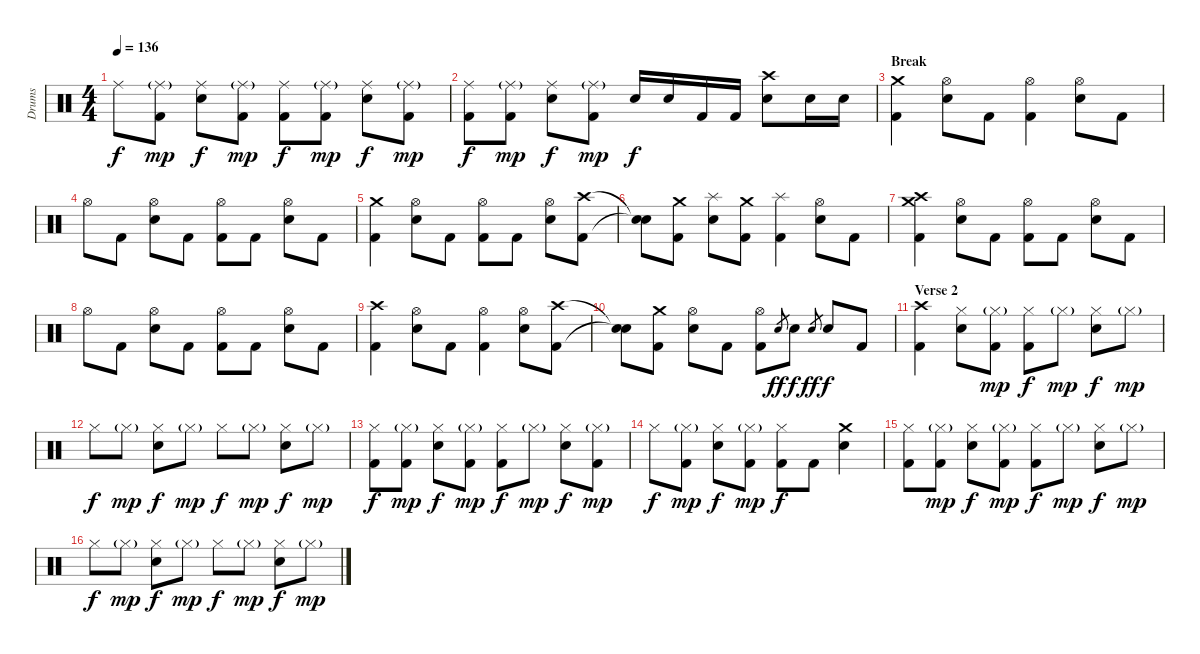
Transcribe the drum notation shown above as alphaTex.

\track ("Drums" "Drums") {instrument percussion}
\staff {score}
\articulation defaults
\ts (4 4)
\tempo 136
\clef neutral
\ks c "Ride (middle)".8{dy f}
("Ride (middle)"{g} "Kick (hit) 2").8{dy mp} ("Ride (middle)" "Snare (hit) 2").8{dy f} ("Ride (middle)"{g} "Kick (hit) 2").8{dy mp} ("Ride (middle)" "Kick (hit) 2").8{dy f} ("Ride (middle)"{g} "Kick (hit) 2").8{dy mp} ("Ride (middle)" "Snare (hit) 2").8{dy f} ("Ride (middle)"{g} "Kick (hit) 2").8{dy mp} |
("Ride (middle)" "Kick (hit) 2").8{dy f} ("Ride (middle)"{g} "Kick (hit) 2").8{dy mp} ("Ride (middle)" "Snare (hit) 2").8{dy f} ("Ride (middle)"{g} "Kick (hit) 2").8{dy mp} "Snare (hit) 2".16{dy f} "Snare (hit) 2".16 "Kick (hit) 2".16 "Kick (hit) 2".16 ("Crash high (hit)" "Snare (hit) 2").8 "Snare (hit) 2".16 "Snare (hit) 2".16 |
\section ("" "Break")
("Crash medium (hit)" "Kick (hit) 2").4 ("Hi-Hat (open)" "Snare (hit) 2").8 "Kick (hit) 2".8 ("Hi-Hat (open)" "Kick (hit) 2").4 ("Hi-Hat (open)" "Snare (hit) 2").8 "Kick (hit) 2".8 |
"Hi-Hat (open)".8 "Kick (hit) 2".8 ("Hi-Hat (open)" "Snare (hit) 2").8 "Kick (hit) 2".8 ("Hi-Hat (open)" "Kick (hit) 2").8 "Kick (hit) 2".8 ("Hi-Hat (open)" "Snare (hit) 2").8 "Kick (hit) 2".8 |
("Crash medium (hit)" "Kick (hit) 2").4 ("Hi-Hat (open)" "Snare (hit) 2").8 "Kick (hit) 2".8 ("Hi-Hat (open)" "Kick (hit) 2").8 "Kick (hit) 2".8 ("Hi-Hat (open)" "Snare (hit) 2").8 ("Crash high (hit)" "Kick (hit) 2").8 |
("Snare (hit)"{t} "Snare (hit)"{t}).8 ("Crash medium (hit)" "Kick (hit) 2").8 ("Splash (hit)" "Snare (hit) 2").8 ("Crash medium (hit)" "Kick (hit) 2").8 ("Splash (hit)" "Kick (hit) 2").4 ("Hi-Hat (open)" "Snare (hit) 2").8 "Kick (hit) 2".8 |
("Crash medium (hit)" "Crash high (hit)" "Kick (hit) 2").4 ("Hi-Hat (open)" "Snare (hit) 2").8 "Kick (hit) 2".8 ("Hi-Hat (open)" "Kick (hit) 2").8 "Kick (hit) 2".8 ("Hi-Hat (open)" "Snare (hit) 2").8 "Kick (hit) 2".8 |
"Hi-Hat (open)".8 "Kick (hit) 2".8 ("Hi-Hat (open)" "Snare (hit) 2").8 "Kick (hit) 2".8 ("Hi-Hat (open)" "Kick (hit) 2").8 "Kick (hit) 2".8 ("Hi-Hat (open)" "Snare (hit) 2").8 "Kick (hit) 2".8 |
("Crash high (hit)" "Kick (hit) 2").4 ("Hi-Hat (open)" "Snare (hit) 2").8 "Kick (hit) 2".8 ("Hi-Hat (open)" "Kick (hit) 2").4 ("Hi-Hat (open)" "Snare (hit) 2").8 ("Crash high (hit)" "Kick (hit) 2").8 |
("Snare (hit)"{t} "Snare (hit)"{t}).8 ("Crash medium (hit)" "Kick (hit) 2").8 ("Hi-Hat (open)" "Snare (hit) 2").8 "Kick (hit) 2".8 ("Hi-Hat (open)" "Kick (hit) 2").8 "Snare (hit) 2".8{gr dy ff} "Snare (hit) 2".8{dy f} "Snare (hit) 2".8{gr dy ff} "Snare (hit) 2".8{dy f} "Kick (hit) 2".8 |
\section ("" "Verse 2")
("Crash high (hit)" "Kick (hit) 2").4 ("Hi-Hat (closed)" "Snare (hit) 2").8 ("Hi-Hat (closed)"{g} "Kick (hit) 2").8{dy mp} ("Hi-Hat (closed)" "Kick (hit) 2").8{dy f} "Hi-Hat (closed)"{g}.8{dy mp} ("Hi-Hat (closed)" "Snare (hit) 2").8{dy f} "Hi-Hat (closed)"{g}.8{dy mp} |
"Hi-Hat (closed)".8{dy f} "Hi-Hat (closed)"{g}.8{dy mp} ("Hi-Hat (closed)" "Snare (hit) 2").8{dy f} "Hi-Hat (closed)"{g}.8{dy mp} "Hi-Hat (closed)".8{dy f} "Hi-Hat (closed)"{g}.8{dy mp} ("Hi-Hat (closed)" "Snare (hit) 2").8{dy f} "Hi-Hat (closed)"{g}.8{dy mp} |
("Hi-Hat (closed)" "Kick (hit) 2").8{dy f} ("Hi-Hat (closed)"{g} "Kick (hit) 2").8{dy mp} ("Hi-Hat (closed)" "Snare (hit) 2").8{dy f} ("Hi-Hat (closed)"{g} "Kick (hit) 2").8{dy mp} ("Hi-Hat (closed)" "Kick (hit) 2").8{dy f} "Hi-Hat (closed)"{g}.8{dy mp} ("Hi-Hat (closed)" "Snare (hit) 2").8{dy f} ("Hi-Hat (closed)"{g} "Kick (hit) 2").8{dy mp} |
"Hi-Hat (closed)".8{dy f} ("Hi-Hat (closed)"{g} "Kick (hit) 2").8{dy mp} ("Hi-Hat (closed)" "Snare (hit) 2").8{dy f} ("Hi-Hat (closed)"{g} "Kick (hit) 2").8{dy mp} ("Hi-Hat (closed)" "Kick (hit) 2").8{dy f} "Kick (hit) 2".8 ("Crash medium (hit)" "Snare (hit) 2").4 |
("Hi-Hat (closed)" "Kick (hit) 2").8 ("Hi-Hat (closed)"{g} "Kick (hit) 2").8{dy mp} ("Hi-Hat (closed)" "Snare (hit) 2").8{dy f} ("Hi-Hat (closed)"{g} "Kick (hit) 2").8{dy mp} ("Hi-Hat (closed)" "Kick (hit) 2").8{dy f} "Hi-Hat (closed)"{g}.8{dy mp} ("Hi-Hat (closed)" "Snare (hit) 2").8{dy f} "Hi-Hat (closed)"{g}.8{dy mp} |
"Hi-Hat (closed)".8{dy f} "Hi-Hat (closed)"{g}.8{dy mp} ("Hi-Hat (closed)" "Snare (hit) 2").8{dy f} "Hi-Hat (closed)"{g}.8{dy mp} "Hi-Hat (closed)".8{dy f} "Hi-Hat (closed)"{g}.8{dy mp} ("Hi-Hat (closed)" "Snare (hit) 2").8{dy f} "Hi-Hat (closed)"{g}.8{dy mp}
